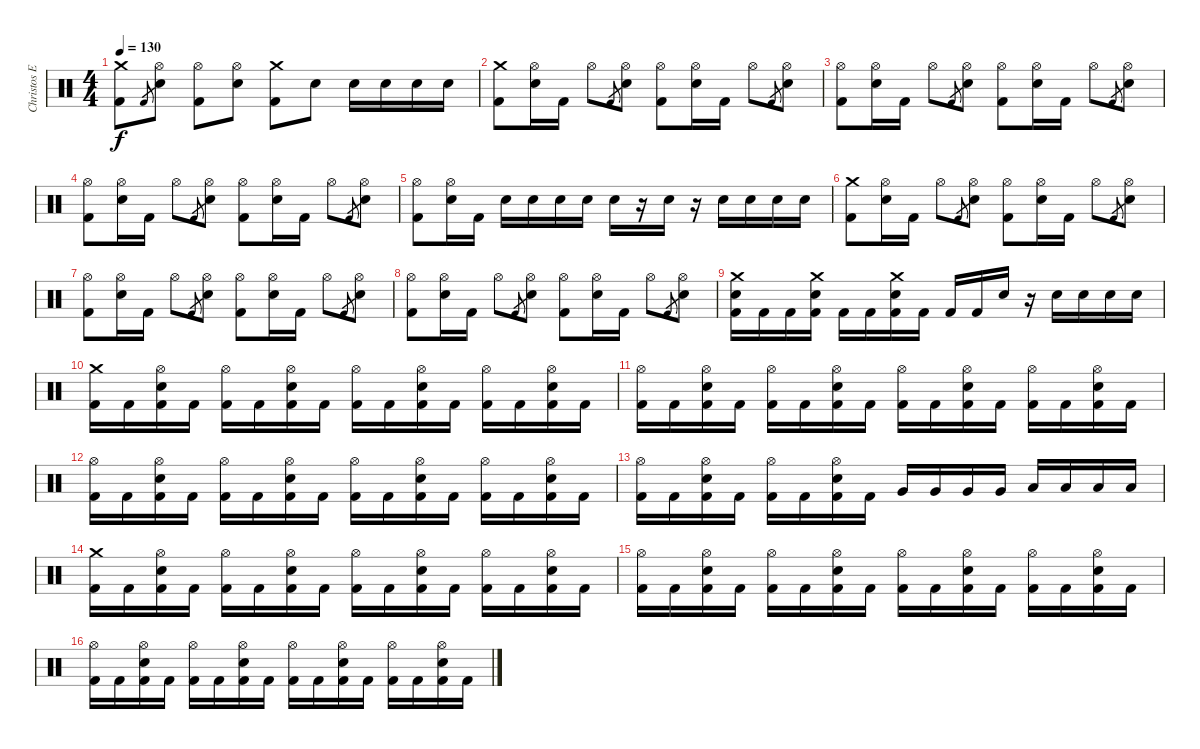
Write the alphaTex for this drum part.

\track ("Christos Efthimiadis" "Christos E") {instrument percussion}
\staff {score}
\articulation defaults
\ts (4 4)
\tempo 130
\clef neutral
\ks c
("Crash medium (hit)" "Kick (hit) 2").8{dy f} "Kick (hit) 2".8{gr} ("Hi-Hat (open)" "Snare (hit) 2").8 ("Hi-Hat (open)" "Kick (hit) 2").8 ("Hi-Hat (open)" "Snare (hit) 2").8 ("Crash medium (hit)" "Kick (hit) 2").8 "Snare (hit) 2".8 "Snare (hit) 2".16 "Snare (hit) 2".16 "Snare (hit) 2".16 "Snare (hit) 2".16 |
("Crash medium (hit)" "Kick (hit) 2").8 ("Hi-Hat (open)" "Snare (hit) 2").16 "Kick (hit) 2".16 "Hi-Hat (open)".8 "Kick (hit) 2".8{gr} ("Hi-Hat (open)" "Snare (hit) 2").8 ("Hi-Hat (open)" "Kick (hit) 2").8 ("Hi-Hat (open)" "Snare (hit) 2").16 "Kick (hit) 2".16 "Hi-Hat (open)".8 "Kick (hit) 2".8{gr} ("Hi-Hat (open)" "Snare (hit) 2").8 |
("Hi-Hat (open)" "Kick (hit) 2").8 ("Hi-Hat (open)" "Snare (hit) 2").16 "Kick (hit) 2".16 "Hi-Hat (open)".8 "Kick (hit) 2".8{gr} ("Hi-Hat (open)" "Snare (hit) 2").8 ("Hi-Hat (open)" "Kick (hit) 2").8 ("Hi-Hat (open)" "Snare (hit) 2").16 "Kick (hit) 2".16 "Hi-Hat (open)".8 "Kick (hit) 2".8{gr} ("Hi-Hat (open)" "Snare (hit) 2").8 |
("Hi-Hat (open)" "Kick (hit) 2").8 ("Hi-Hat (open)" "Snare (hit) 2").16 "Kick (hit) 2".16 "Hi-Hat (open)".8 "Kick (hit) 2".8{gr} ("Hi-Hat (open)" "Snare (hit) 2").8 ("Hi-Hat (open)" "Kick (hit) 2").8 ("Hi-Hat (open)" "Snare (hit) 2").16 "Kick (hit) 2".16 "Hi-Hat (open)".8 "Kick (hit) 2".8{gr} ("Hi-Hat (open)" "Snare (hit) 2").8 |
("Hi-Hat (open)" "Kick (hit) 2").8 ("Hi-Hat (open)" "Snare (hit) 2").16 "Kick (hit) 2".16 "Snare (hit) 2".16 "Snare (hit) 2".16 "Snare (hit) 2".16 "Snare (hit) 2".16 "Snare (hit) 2".16 r.16 "Snare (hit) 2".16 r.16 "Snare (hit) 2".16 "Snare (hit) 2".16 "Snare (hit) 2".16 "Snare (hit) 2".16 |
("Crash medium (hit)" "Kick (hit) 2").8 ("Hi-Hat (open)" "Snare (hit) 2").16 "Kick (hit) 2".16 "Hi-Hat (open)".8 "Kick (hit) 2".8{gr} ("Hi-Hat (open)" "Snare (hit) 2").8 ("Hi-Hat (open)" "Kick (hit) 2").8 ("Hi-Hat (open)" "Snare (hit) 2").16 "Kick (hit) 2".16 "Hi-Hat (open)".8 "Kick (hit) 2".8{gr} ("Hi-Hat (open)" "Snare (hit) 2").8 |
("Hi-Hat (open)" "Kick (hit) 2").8 ("Hi-Hat (open)" "Snare (hit) 2").16 "Kick (hit) 2".16 "Hi-Hat (open)".8 "Kick (hit) 2".8{gr} ("Hi-Hat (open)" "Snare (hit) 2").8 ("Hi-Hat (open)" "Kick (hit) 2").8 ("Hi-Hat (open)" "Snare (hit) 2").16 "Kick (hit) 2".16 "Hi-Hat (open)".8 "Kick (hit) 2".8{gr} ("Hi-Hat (open)" "Snare (hit) 2").8 |
("Hi-Hat (open)" "Kick (hit) 2").8 ("Hi-Hat (open)" "Snare (hit) 2").16 "Kick (hit) 2".16 "Hi-Hat (open)".8 "Kick (hit) 2".8{gr} ("Hi-Hat (open)" "Snare (hit) 2").8 ("Hi-Hat (open)" "Kick (hit) 2").8 ("Hi-Hat (open)" "Snare (hit) 2").16 "Kick (hit) 2".16 "Hi-Hat (open)".8 "Kick (hit) 2".8{gr} ("Hi-Hat (open)" "Snare (hit) 2").8 |
("Crash medium (hit)" "Snare (hit) 2" "Kick (hit) 2").16 "Kick (hit) 2".16 "Kick (hit) 2".16 ("Crash medium (hit)" "Snare (hit) 2" "Kick (hit) 2").16 "Kick (hit) 2".16 "Kick (hit) 2".16 ("Crash medium (hit)" "Snare (hit) 2" "Kick (hit) 2").16 "Kick (hit) 2".16 "Kick (hit) 2".16 "Kick (hit) 2".16 "Snare (hit) 2".16 r.16 "Snare (hit) 2".16 "Snare (hit) 2".16 "Snare (hit) 2".16 "Snare (hit) 2".16 |
("Crash medium (hit)" "Kick (hit) 2").16 "Kick (hit) 2".16 ("Snare (hit) 2" "Hi-Hat (open)" "Kick (hit) 2").16 "Kick (hit) 2".16 ("Hi-Hat (open)" "Kick (hit) 2").16 "Kick (hit) 2".16 ("Snare (hit) 2" "Hi-Hat (open)" "Kick (hit) 2").16 "Kick (hit) 2".16 ("Hi-Hat (open)" "Kick (hit) 2").16 "Kick (hit) 2".16 ("Snare (hit) 2" "Hi-Hat (open)" "Kick (hit) 2").16 "Kick (hit) 2".16 ("Hi-Hat (open)" "Kick (hit) 2").16 "Kick (hit) 2".16 ("Snare (hit) 2" "Hi-Hat (open)" "Kick (hit) 2").16 "Kick (hit) 2".16 |
("Hi-Hat (open)" "Kick (hit) 2").16 "Kick (hit) 2".16 ("Snare (hit) 2" "Hi-Hat (open)" "Kick (hit) 2").16 "Kick (hit) 2".16 ("Hi-Hat (open)" "Kick (hit) 2").16 "Kick (hit) 2".16 ("Snare (hit) 2" "Hi-Hat (open)" "Kick (hit) 2").16 "Kick (hit) 2".16 ("Hi-Hat (open)" "Kick (hit) 2").16 "Kick (hit) 2".16 ("Snare (hit) 2" "Hi-Hat (open)" "Kick (hit) 2").16 "Kick (hit) 2".16 ("Hi-Hat (open)" "Kick (hit) 2").16 "Kick (hit) 2".16 ("Snare (hit) 2" "Hi-Hat (open)" "Kick (hit) 2").16 "Kick (hit) 2".16 |
("Hi-Hat (open)" "Kick (hit) 2").16 "Kick (hit) 2".16 ("Snare (hit) 2" "Hi-Hat (open)" "Kick (hit) 2").16 "Kick (hit) 2".16 ("Hi-Hat (open)" "Kick (hit) 2").16 "Kick (hit) 2".16 ("Snare (hit) 2" "Hi-Hat (open)" "Kick (hit) 2").16 "Kick (hit) 2".16 ("Hi-Hat (open)" "Kick (hit) 2").16 "Kick (hit) 2".16 ("Snare (hit) 2" "Hi-Hat (open)" "Kick (hit) 2").16 "Kick (hit) 2".16 ("Hi-Hat (open)" "Kick (hit) 2").16 "Kick (hit) 2".16 ("Snare (hit) 2" "Hi-Hat (open)" "Kick (hit) 2").16 "Kick (hit) 2".16 |
("Hi-Hat (open)" "Kick (hit) 2").16 "Kick (hit) 2".16 ("Snare (hit) 2" "Hi-Hat (open)" "Kick (hit) 2").16 "Kick (hit) 2".16 ("Hi-Hat (open)" "Kick (hit) 2").16 "Kick (hit) 2".16 ("Snare (hit) 2" "Hi-Hat (open)" "Kick (hit) 2").16 "Kick (hit) 2".16 "Very Low Tom (hit)".16 "Very Low Tom (hit)".16 "Very Low Tom (hit)".16 "Very Low Tom (hit)".16 "Low Floor Tom (hit)".16 "Low Floor Tom (hit)".16 "Low Floor Tom (hit)".16 "Low Floor Tom (hit)".16 |
("Crash medium (hit)" "Kick (hit) 2").16 "Kick (hit) 2".16 ("Snare (hit) 2" "Hi-Hat (open)" "Kick (hit) 2").16 "Kick (hit) 2".16 ("Hi-Hat (open)" "Kick (hit) 2").16 "Kick (hit) 2".16 ("Snare (hit) 2" "Hi-Hat (open)" "Kick (hit) 2").16 "Kick (hit) 2".16 ("Hi-Hat (open)" "Kick (hit) 2").16 "Kick (hit) 2".16 ("Snare (hit) 2" "Hi-Hat (open)" "Kick (hit) 2").16 "Kick (hit) 2".16 ("Hi-Hat (open)" "Kick (hit) 2").16 "Kick (hit) 2".16 ("Snare (hit) 2" "Hi-Hat (open)" "Kick (hit) 2").16 "Kick (hit) 2".16 |
("Hi-Hat (open)" "Kick (hit) 2").16 "Kick (hit) 2".16 ("Snare (hit) 2" "Hi-Hat (open)" "Kick (hit) 2").16 "Kick (hit) 2".16 ("Hi-Hat (open)" "Kick (hit) 2").16 "Kick (hit) 2".16 ("Snare (hit) 2" "Hi-Hat (open)" "Kick (hit) 2").16 "Kick (hit) 2".16 ("Hi-Hat (open)" "Kick (hit) 2").16 "Kick (hit) 2".16 ("Snare (hit) 2" "Hi-Hat (open)" "Kick (hit) 2").16 "Kick (hit) 2".16 ("Hi-Hat (open)" "Kick (hit) 2").16 "Kick (hit) 2".16 ("Snare (hit) 2" "Hi-Hat (open)" "Kick (hit) 2").16 "Kick (hit) 2".16 |
("Hi-Hat (open)" "Kick (hit) 2").16 "Kick (hit) 2".16 ("Snare (hit) 2" "Hi-Hat (open)" "Kick (hit) 2").16 "Kick (hit) 2".16 ("Hi-Hat (open)" "Kick (hit) 2").16 "Kick (hit) 2".16 ("Snare (hit) 2" "Hi-Hat (open)" "Kick (hit) 2").16 "Kick (hit) 2".16 ("Hi-Hat (open)" "Kick (hit) 2").16 "Kick (hit) 2".16 ("Snare (hit) 2" "Hi-Hat (open)" "Kick (hit) 2").16 "Kick (hit) 2".16 ("Hi-Hat (open)" "Kick (hit) 2").16 "Kick (hit) 2".16 ("Snare (hit) 2" "Hi-Hat (open)" "Kick (hit) 2").16 "Kick (hit) 2".16
